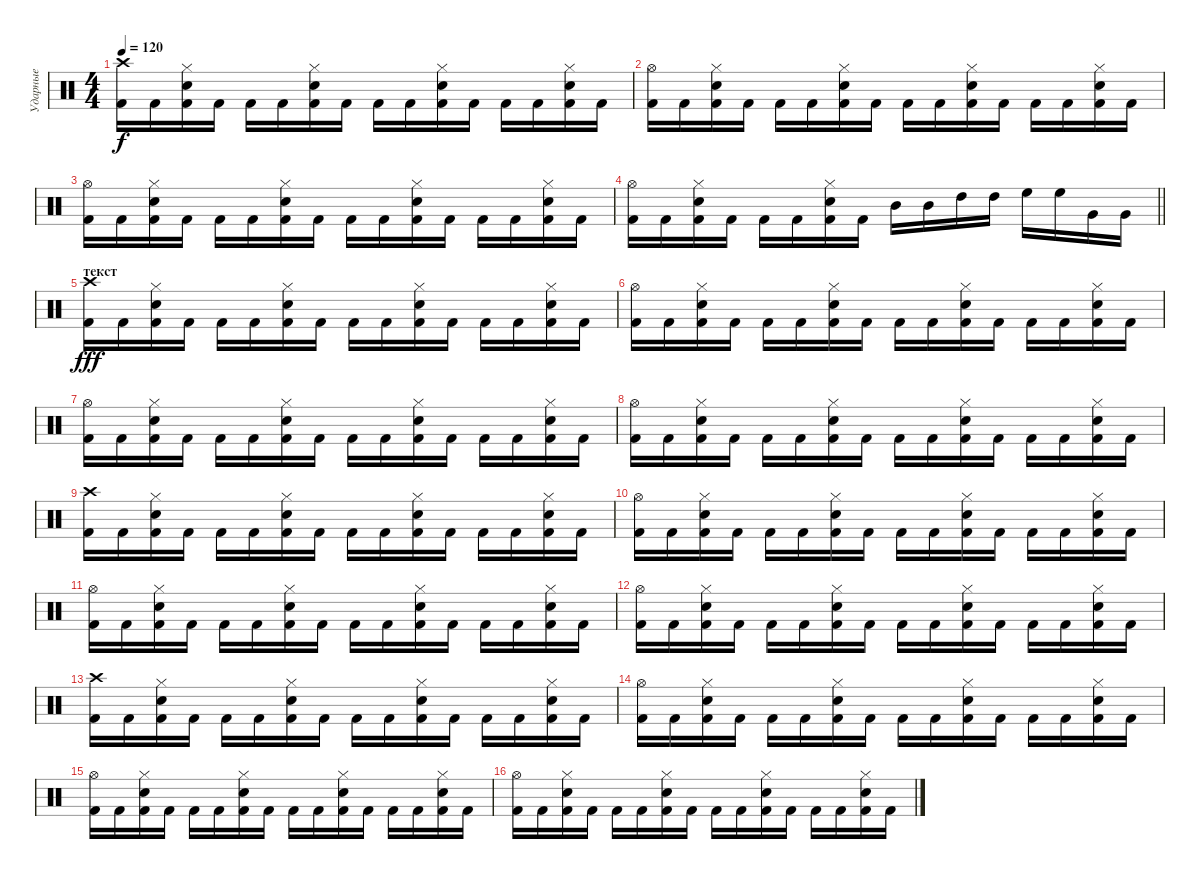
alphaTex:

\track ("Ударные" "Ударные") {instrument percussion}
\staff {score}
\articulation defaults
\ts (4 4)
\tempo 120
\clef neutral
\ks c
("Crash high (hit)" "Kick (hit) 2").16{dy f} "Kick (hit) 2".16 ("Snare (hit) 2" "Hi-Hat (closed)" "Kick (hit) 2").16 "Kick (hit) 2".16 "Kick (hit) 2".16 "Kick (hit) 2".16 ("Snare (hit) 2" "Hi-Hat (closed)" "Kick (hit) 2").16 "Kick (hit) 2".16 "Kick (hit) 2".16 "Kick (hit) 2".16 ("Snare (hit) 2" "Hi-Hat (closed)" "Kick (hit) 2").16 "Kick (hit) 2".16 "Kick (hit) 2".16 "Kick (hit) 2".16 ("Snare (hit) 2" "Hi-Hat (closed)" "Kick (hit) 2").16 "Kick (hit) 2".16 |
("Hi-Hat (open)" "Kick (hit) 2").16 "Kick (hit) 2".16 ("Snare (hit) 2" "Hi-Hat (closed)" "Kick (hit) 2").16 "Kick (hit) 2".16 "Kick (hit) 2".16 "Kick (hit) 2".16 ("Snare (hit) 2" "Hi-Hat (closed)" "Kick (hit) 2").16 "Kick (hit) 2".16 "Kick (hit) 2".16 "Kick (hit) 2".16 ("Snare (hit) 2" "Hi-Hat (closed)" "Kick (hit) 2").16 "Kick (hit) 2".16 "Kick (hit) 2".16 "Kick (hit) 2".16 ("Snare (hit) 2" "Hi-Hat (closed)" "Kick (hit) 2").16 "Kick (hit) 2".16 |
("Hi-Hat (open)" "Kick (hit) 2").16 "Kick (hit) 2".16 ("Snare (hit) 2" "Hi-Hat (closed)" "Kick (hit) 2").16 "Kick (hit) 2".16 "Kick (hit) 2".16 "Kick (hit) 2".16 ("Snare (hit) 2" "Hi-Hat (closed)" "Kick (hit) 2").16 "Kick (hit) 2".16 "Kick (hit) 2".16 "Kick (hit) 2".16 ("Snare (hit) 2" "Hi-Hat (closed)" "Kick (hit) 2").16 "Kick (hit) 2".16 "Kick (hit) 2".16 "Kick (hit) 2".16 ("Snare (hit) 2" "Hi-Hat (closed)" "Kick (hit) 2").16 "Kick (hit) 2".16 |
\barLineRight lightlight
("Hi-Hat (open)" "Kick (hit) 2").16 "Kick (hit) 2".16 ("Snare (hit) 2" "Hi-Hat (closed)" "Kick (hit) 2").16 "Kick (hit) 2".16 "Kick (hit) 2".16 "Kick (hit) 2".16 ("Snare (hit) 2" "Hi-Hat (closed)" "Kick (hit) 2").16 "Kick (hit) 2".16 "Mid Tom (hit)".16 "Mid Tom (hit)".16 "High Tom (hit)".16 "High Tom (hit)".16 "High Floor Tom (hit)".16 "High Floor Tom (hit)".16 "Very Low Tom (hit)".16 "Very Low Tom (hit)".16 |
\section ("" "текст")
("Crash high (hit)" "Kick (hit) 2").16{dy fff} "Kick (hit) 2".16 ("Snare (hit) 2" "Hi-Hat (closed)" "Kick (hit) 2").16 "Kick (hit) 2".16 "Kick (hit) 2".16 "Kick (hit) 2".16 ("Snare (hit) 2" "Hi-Hat (closed)" "Kick (hit) 2").16 "Kick (hit) 2".16 "Kick (hit) 2".16 "Kick (hit) 2".16 ("Snare (hit) 2" "Hi-Hat (closed)" "Kick (hit) 2").16 "Kick (hit) 2".16 "Kick (hit) 2".16 "Kick (hit) 2".16 ("Snare (hit) 2" "Hi-Hat (closed)" "Kick (hit) 2").16 "Kick (hit) 2".16 |
("Hi-Hat (open)" "Kick (hit) 2").16 "Kick (hit) 2".16 ("Snare (hit) 2" "Hi-Hat (closed)" "Kick (hit) 2").16 "Kick (hit) 2".16 "Kick (hit) 2".16 "Kick (hit) 2".16 ("Snare (hit) 2" "Hi-Hat (closed)" "Kick (hit) 2").16 "Kick (hit) 2".16 "Kick (hit) 2".16 "Kick (hit) 2".16 ("Snare (hit) 2" "Hi-Hat (closed)" "Kick (hit) 2").16 "Kick (hit) 2".16 "Kick (hit) 2".16 "Kick (hit) 2".16 ("Snare (hit) 2" "Hi-Hat (closed)" "Kick (hit) 2").16 "Kick (hit) 2".16 |
("Hi-Hat (open)" "Kick (hit) 2").16 "Kick (hit) 2".16 ("Snare (hit) 2" "Hi-Hat (closed)" "Kick (hit) 2").16 "Kick (hit) 2".16 "Kick (hit) 2".16 "Kick (hit) 2".16 ("Snare (hit) 2" "Hi-Hat (closed)" "Kick (hit) 2").16 "Kick (hit) 2".16 "Kick (hit) 2".16 "Kick (hit) 2".16 ("Snare (hit) 2" "Hi-Hat (closed)" "Kick (hit) 2").16 "Kick (hit) 2".16 "Kick (hit) 2".16 "Kick (hit) 2".16 ("Snare (hit) 2" "Hi-Hat (closed)" "Kick (hit) 2").16 "Kick (hit) 2".16 |
("Hi-Hat (open)" "Kick (hit) 2").16 "Kick (hit) 2".16 ("Snare (hit) 2" "Hi-Hat (closed)" "Kick (hit) 2").16 "Kick (hit) 2".16 "Kick (hit) 2".16 "Kick (hit) 2".16 ("Snare (hit) 2" "Hi-Hat (closed)" "Kick (hit) 2").16 "Kick (hit) 2".16 "Kick (hit) 2".16 "Kick (hit) 2".16 ("Snare (hit) 2" "Hi-Hat (closed)" "Kick (hit) 2").16 "Kick (hit) 2".16 "Kick (hit) 2".16 "Kick (hit) 2".16 ("Snare (hit) 2" "Hi-Hat (closed)" "Kick (hit) 2").16 "Kick (hit) 2".16 |
("Crash high (hit)" "Kick (hit) 2").16 "Kick (hit) 2".16 ("Snare (hit) 2" "Hi-Hat (closed)" "Kick (hit) 2").16 "Kick (hit) 2".16 "Kick (hit) 2".16 "Kick (hit) 2".16 ("Snare (hit) 2" "Hi-Hat (closed)" "Kick (hit) 2").16 "Kick (hit) 2".16 "Kick (hit) 2".16 "Kick (hit) 2".16 ("Snare (hit) 2" "Hi-Hat (closed)" "Kick (hit) 2").16 "Kick (hit) 2".16 "Kick (hit) 2".16 "Kick (hit) 2".16 ("Snare (hit) 2" "Hi-Hat (closed)" "Kick (hit) 2").16 "Kick (hit) 2".16 |
("Hi-Hat (open)" "Kick (hit) 2").16 "Kick (hit) 2".16 ("Snare (hit) 2" "Hi-Hat (closed)" "Kick (hit) 2").16 "Kick (hit) 2".16 "Kick (hit) 2".16 "Kick (hit) 2".16 ("Snare (hit) 2" "Hi-Hat (closed)" "Kick (hit) 2").16 "Kick (hit) 2".16 "Kick (hit) 2".16 "Kick (hit) 2".16 ("Snare (hit) 2" "Hi-Hat (closed)" "Kick (hit) 2").16 "Kick (hit) 2".16 "Kick (hit) 2".16 "Kick (hit) 2".16 ("Snare (hit) 2" "Hi-Hat (closed)" "Kick (hit) 2").16 "Kick (hit) 2".16 |
("Hi-Hat (open)" "Kick (hit) 2").16 "Kick (hit) 2".16 ("Snare (hit) 2" "Hi-Hat (closed)" "Kick (hit) 2").16 "Kick (hit) 2".16 "Kick (hit) 2".16 "Kick (hit) 2".16 ("Snare (hit) 2" "Hi-Hat (closed)" "Kick (hit) 2").16 "Kick (hit) 2".16 "Kick (hit) 2".16 "Kick (hit) 2".16 ("Snare (hit) 2" "Hi-Hat (closed)" "Kick (hit) 2").16 "Kick (hit) 2".16 "Kick (hit) 2".16 "Kick (hit) 2".16 ("Snare (hit) 2" "Hi-Hat (closed)" "Kick (hit) 2").16 "Kick (hit) 2".16 |
("Hi-Hat (open)" "Kick (hit) 2").16 "Kick (hit) 2".16 ("Snare (hit) 2" "Hi-Hat (closed)" "Kick (hit) 2").16 "Kick (hit) 2".16 "Kick (hit) 2".16 "Kick (hit) 2".16 ("Snare (hit) 2" "Hi-Hat (closed)" "Kick (hit) 2").16 "Kick (hit) 2".16 "Kick (hit) 2".16 "Kick (hit) 2".16 ("Snare (hit) 2" "Hi-Hat (closed)" "Kick (hit) 2").16 "Kick (hit) 2".16 "Kick (hit) 2".16 "Kick (hit) 2".16 ("Snare (hit) 2" "Hi-Hat (closed)" "Kick (hit) 2").16 "Kick (hit) 2".16 |
("Crash high (hit)" "Kick (hit) 2").16 "Kick (hit) 2".16 ("Snare (hit) 2" "Hi-Hat (closed)" "Kick (hit) 2").16 "Kick (hit) 2".16 "Kick (hit) 2".16 "Kick (hit) 2".16 ("Snare (hit) 2" "Hi-Hat (closed)" "Kick (hit) 2").16 "Kick (hit) 2".16 "Kick (hit) 2".16 "Kick (hit) 2".16 ("Snare (hit) 2" "Hi-Hat (closed)" "Kick (hit) 2").16 "Kick (hit) 2".16 "Kick (hit) 2".16 "Kick (hit) 2".16 ("Snare (hit) 2" "Hi-Hat (closed)" "Kick (hit) 2").16 "Kick (hit) 2".16 |
("Hi-Hat (open)" "Kick (hit) 2").16 "Kick (hit) 2".16 ("Snare (hit) 2" "Hi-Hat (closed)" "Kick (hit) 2").16 "Kick (hit) 2".16 "Kick (hit) 2".16 "Kick (hit) 2".16 ("Snare (hit) 2" "Hi-Hat (closed)" "Kick (hit) 2").16 "Kick (hit) 2".16 "Kick (hit) 2".16 "Kick (hit) 2".16 ("Snare (hit) 2" "Hi-Hat (closed)" "Kick (hit) 2").16 "Kick (hit) 2".16 "Kick (hit) 2".16 "Kick (hit) 2".16 ("Snare (hit) 2" "Hi-Hat (closed)" "Kick (hit) 2").16 "Kick (hit) 2".16 |
("Hi-Hat (open)" "Kick (hit) 2").16 "Kick (hit) 2".16 ("Snare (hit) 2" "Hi-Hat (closed)" "Kick (hit) 2").16 "Kick (hit) 2".16 "Kick (hit) 2".16 "Kick (hit) 2".16 ("Snare (hit) 2" "Hi-Hat (closed)" "Kick (hit) 2").16 "Kick (hit) 2".16 "Kick (hit) 2".16 "Kick (hit) 2".16 ("Snare (hit) 2" "Hi-Hat (closed)" "Kick (hit) 2").16 "Kick (hit) 2".16 "Kick (hit) 2".16 "Kick (hit) 2".16 ("Snare (hit) 2" "Hi-Hat (closed)" "Kick (hit) 2").16 "Kick (hit) 2".16 |
("Hi-Hat (open)" "Kick (hit) 2").16 "Kick (hit) 2".16 ("Snare (hit) 2" "Hi-Hat (closed)" "Kick (hit) 2").16 "Kick (hit) 2".16 "Kick (hit) 2".16 "Kick (hit) 2".16 ("Snare (hit) 2" "Hi-Hat (closed)" "Kick (hit) 2").16 "Kick (hit) 2".16 "Kick (hit) 2".16 "Kick (hit) 2".16 ("Snare (hit) 2" "Hi-Hat (closed)" "Kick (hit) 2").16 "Kick (hit) 2".16 "Kick (hit) 2".16 "Kick (hit) 2".16 ("Snare (hit) 2" "Hi-Hat (closed)" "Kick (hit) 2").16 "Kick (hit) 2".16
